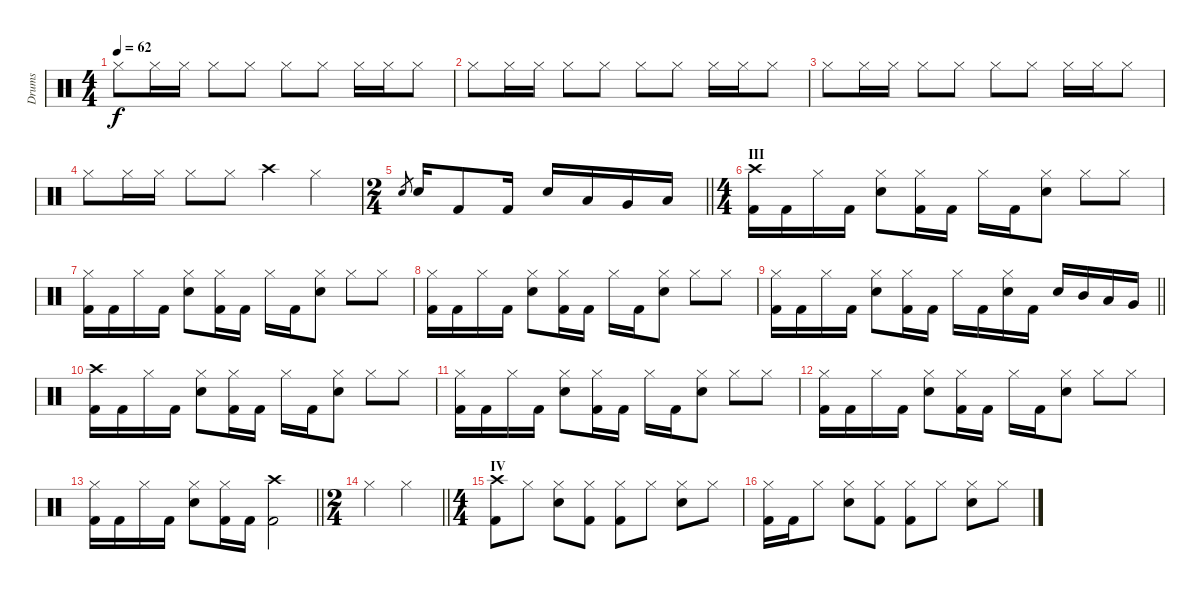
\track ("Drums" "Drums") {instrument percussion}
\staff {score}
\articulation defaults
\ts (4 4)
\tempo 62
\clef neutral
\ks c "Hi-Hat (closed)".8{dy f} "Hi-Hat (closed)".16 "Hi-Hat (closed)".16 "Hi-Hat (closed)".8 "Hi-Hat (closed)".8 "Hi-Hat (closed)".8 "Hi-Hat (closed)".8 "Hi-Hat (closed)".16 "Hi-Hat (closed)".16 "Hi-Hat (closed)".8
|
"Hi-Hat (closed)".8 "Hi-Hat (closed)".16 "Hi-Hat (closed)".16 "Hi-Hat (closed)".8 "Hi-Hat (closed)".8 "Hi-Hat (closed)".8 "Hi-Hat (closed)".8 "Hi-Hat (closed)".16 "Hi-Hat (closed)".16 "Hi-Hat (closed)".8 |
"Hi-Hat (closed)".8 "Hi-Hat (closed)".16 "Hi-Hat (closed)".16 "Hi-Hat (closed)".8 "Hi-Hat (closed)".8 "Hi-Hat (closed)".8 "Hi-Hat (closed)".8 "Hi-Hat (closed)".16 "Hi-Hat (closed)".16 "Hi-Hat (closed)".8 |
"Hi-Hat (closed)".8 "Hi-Hat (closed)".16 "Hi-Hat (closed)".16 "Hi-Hat (closed)".8 "Hi-Hat (closed)".8 "Crash high (hit)".4 "Hi-Hat (closed)".4 |
\ts (2 4)
\barLineRight lightlight "Snare (hit) 2".8{gr} "Snare (hit) 2".16 "Kick (hit) 2".8 "Kick (hit) 2".16 "Snare (hit) 2".16 "Low Tom (hit)".16 "Very Low Tom (hit)".16 "Low Floor Tom (hit)".16
|
\ts (4 4)
\section ("" "III")
("Crash high (hit)" "Kick (hit) 2").16 "Kick (hit) 2".16 "Hi-Hat (closed)".16 "Kick (hit) 2".16 ("Hi-Hat (closed)" "Snare (hit) 2").8 ("Hi-Hat (closed)" "Kick (hit) 2").16 "Kick (hit) 2".16 "Hi-Hat (closed)".16 "Kick (hit) 2".16 ("Hi-Hat (closed)" "Snare (hit) 2").8 "Hi-Hat (closed)".8 "Hi-Hat (closed)".8 |
("Hi-Hat (closed)" "Kick (hit) 2").16 "Kick (hit) 2".16 "Hi-Hat (closed)".16 "Kick (hit) 2".16 ("Hi-Hat (closed)" "Snare (hit) 2").8 ("Hi-Hat (closed)" "Kick (hit) 2").16 "Kick (hit) 2".16 "Hi-Hat (closed)".16 "Kick (hit) 2".16 ("Hi-Hat (closed)" "Snare (hit) 2").8 "Hi-Hat (closed)".8 "Hi-Hat (closed)".8 |
("Hi-Hat (closed)" "Kick (hit) 2").16 "Kick (hit) 2".16 "Hi-Hat (closed)".16 "Kick (hit) 2".16 ("Hi-Hat (closed)" "Snare (hit) 2").8 ("Hi-Hat (closed)" "Kick (hit) 2").16 "Kick (hit) 2".16 "Hi-Hat (closed)".16 "Kick (hit) 2".16 ("Hi-Hat (closed)" "Snare (hit) 2").8 "Hi-Hat (closed)".8 "Hi-Hat (closed)".8 |
\barLineRight lightlight
("Hi-Hat (closed)" "Kick (hit) 2").16 "Kick (hit) 2".16 "Hi-Hat (closed)".16 "Kick (hit) 2".16 ("Hi-Hat (closed)" "Snare (hit) 2").8 ("Hi-Hat (closed)" "Kick (hit) 2").16 "Kick (hit) 2".16 "Hi-Hat (closed)".16 "Kick (hit) 2".16 ("Hi-Hat (closed)" "Snare (hit) 2").16 "Kick (hit) 2".16 "Snare (hit) 2".16 "Mid Tom (hit)".16 "Low Tom (hit)".16 "Very Low Tom (hit)".16 |
("Crash high (hit)" "Kick (hit) 2").16 "Kick (hit) 2".16 "Hi-Hat (closed)".16 "Kick (hit) 2".16 ("Hi-Hat (closed)" "Snare (hit) 2").8 ("Hi-Hat (closed)" "Kick (hit) 2").16 "Kick (hit) 2".16 "Hi-Hat (closed)".16 "Kick (hit) 2".16 ("Hi-Hat (closed)" "Snare (hit) 2").8 "Hi-Hat (closed)".8 "Hi-Hat (closed)".8 |
("Hi-Hat (closed)" "Kick (hit) 2").16 "Kick (hit) 2".16 "Hi-Hat (closed)".16 "Kick (hit) 2".16 ("Hi-Hat (closed)" "Snare (hit) 2").8 ("Hi-Hat (closed)" "Kick (hit) 2").16 "Kick (hit) 2".16 "Hi-Hat (closed)".16 "Kick (hit) 2".16 ("Hi-Hat (closed)" "Snare (hit) 2").8 "Hi-Hat (closed)".8 "Hi-Hat (closed)".8 |
("Hi-Hat (closed)" "Kick (hit) 2").16 "Kick (hit) 2".16 "Hi-Hat (closed)".16 "Kick (hit) 2".16 ("Hi-Hat (closed)" "Snare (hit) 2").8 ("Hi-Hat (closed)" "Kick (hit) 2").16 "Kick (hit) 2".16 "Hi-Hat (closed)".16 "Kick (hit) 2".16 ("Hi-Hat (closed)" "Snare (hit) 2").8 "Hi-Hat (closed)".8 "Hi-Hat (closed)".8 |
\barLineRight lightlight
("Hi-Hat (closed)" "Kick (hit) 2").16 "Kick (hit) 2".16 "Hi-Hat (closed)".16 "Kick (hit) 2".16 ("Hi-Hat (closed)" "Snare (hit) 2").8 ("Hi-Hat (closed)" "Kick (hit) 2").16 "Kick (hit) 2".16 ("Crash high (hit)" "Kick (hit) 2").2 |
\ts (2 4)
\barLineRight lightlight "Hi-Hat (closed)".4 "Hi-Hat (closed)".4
|
\ts (4 4)
\section ("" "IV")
("Crash high (hit)" "Kick (hit) 2").8 "Hi-Hat (closed)".8 ("Hi-Hat (closed)" "Snare (hit) 2").8 ("Hi-Hat (closed)" "Kick (hit) 2").8 ("Hi-Hat (closed)" "Kick (hit) 2").8 "Hi-Hat (closed)".8 ("Hi-Hat (closed)" "Snare (hit) 2").8 "Hi-Hat (closed)".8 |
("Hi-Hat (closed)" "Kick (hit) 2").16 "Kick (hit) 2".16 "Hi-Hat (closed)".8 ("Hi-Hat (closed)" "Snare (hit) 2").8 ("Hi-Hat (closed)" "Kick (hit) 2").8 ("Hi-Hat (closed)" "Kick (hit) 2").8 "Hi-Hat (closed)".8 ("Hi-Hat (closed)" "Snare (hit) 2").8 "Hi-Hat (closed)".8
